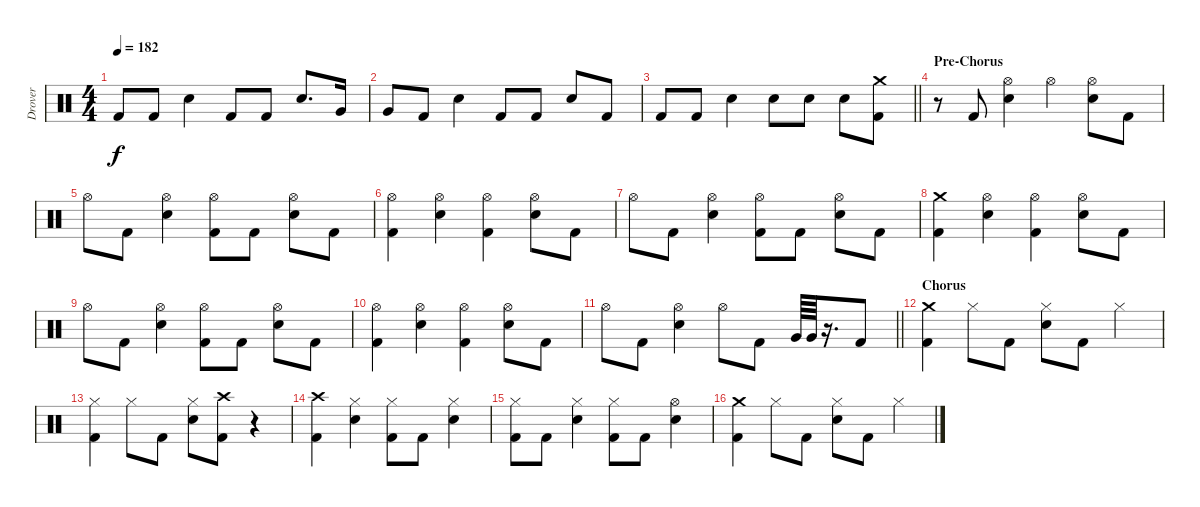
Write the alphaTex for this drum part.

\track ("Drover" "Drover") {instrument percussion}
\staff {score}
\articulation defaults
\ts (4 4)
\tempo 182
\clef neutral
\ks c "Kick (hit) 2".8{dy f} "Kick (hit) 2".8 "Snare (hit) 2".4 "Kick (hit) 2".8 "Kick (hit) 2".8 "Snare (hit) 2".8{d} "Very Low Tom (hit)".16
|
"Very Low Tom (hit)".8 "Kick (hit) 2".8 "Snare (hit) 2".4 "Kick (hit) 2".8 "Kick (hit) 2".8 "Snare (hit) 2".8 "Kick (hit) 2".8 |
\barLineRight lightlight "Kick (hit) 2".8 "Kick (hit) 2".8 "Snare (hit) 2".4 "Snare (hit) 2".8 "Snare (hit) 2".8 "Snare (hit) 2".8
("Crash medium (hit)" "Kick (hit) 2").8 |
\section ("" "Pre-Chorus")
r.8 "Kick (hit) 2".8 ("Hi-Hat (open)" "Snare (hit) 2").4 "Hi-Hat (open)".4 ("Hi-Hat (open)" "Snare (hit) 2").8 "Kick (hit) 2".8 |
"Hi-Hat (open)".8 "Kick (hit) 2".8 ("Hi-Hat (open)" "Snare (hit) 2").4 ("Hi-Hat (open)" "Kick (hit) 2").8 "Kick (hit) 2".8 ("Hi-Hat (open)" "Snare (hit) 2").8 "Kick (hit) 2".8 |
("Hi-Hat (open)" "Kick (hit) 2").4 ("Hi-Hat (open)" "Snare (hit) 2").4 ("Hi-Hat (open)" "Kick (hit) 2").4 ("Hi-Hat (open)" "Snare (hit) 2").8 "Kick (hit) 2".8 |
"Hi-Hat (open)".8 "Kick (hit) 2".8 ("Hi-Hat (open)" "Snare (hit) 2").4 ("Hi-Hat (open)" "Kick (hit) 2").8 "Kick (hit) 2".8 ("Hi-Hat (open)" "Snare (hit) 2").8 "Kick (hit) 2".8 |
("Crash medium (hit)" "Kick (hit) 2").4 ("Hi-Hat (open)" "Snare (hit) 2").4 ("Hi-Hat (open)" "Kick (hit) 2").4 ("Hi-Hat (open)" "Snare (hit) 2").8 "Kick (hit) 2".8 |
"Hi-Hat (open)".8 "Kick (hit) 2".8 ("Hi-Hat (open)" "Snare (hit) 2").4 ("Hi-Hat (open)" "Kick (hit) 2").8 "Kick (hit) 2".8 ("Hi-Hat (open)" "Snare (hit) 2").8 "Kick (hit) 2".8 |
("Hi-Hat (open)" "Kick (hit) 2").4 ("Hi-Hat (open)" "Snare (hit) 2").4 ("Hi-Hat (open)" "Kick (hit) 2").4 ("Hi-Hat (open)" "Snare (hit) 2").8 "Kick (hit) 2".8 |
\barLineRight lightlight "Hi-Hat (open)".8 "Kick (hit) 2".8
("Hi-Hat (open)" "Snare (hit) 2").4 "Hi-Hat (open)".8 "Kick (hit) 2".8 "Very Low Tom (hit)".64 "Very Low Tom (hit)".64 r.16{d} "Kick (hit) 2".8 |
\section ("" "Chorus")
("Crash medium (hit)" "Kick (hit) 2").4 "Hi-Hat (closed)".8 "Kick (hit) 2".8 ("Hi-Hat (closed)" "Snare (hit) 2").8 "Kick (hit) 2".8 "Hi-Hat (closed)".4 |
("Hi-Hat (closed)" "Kick (hit) 2").4 "Hi-Hat (closed)".8 "Kick (hit) 2".8 ("Hi-Hat (closed)" "Snare (hit) 2").8 ("Crash high (hit)" "Kick (hit) 2").8 r.4 |
("Crash high (hit)" "Kick (hit) 2").4 ("Hi-Hat (closed)" "Snare (hit) 2").4 ("Hi-Hat (closed)" "Kick (hit) 2").8 "Kick (hit) 2".8 ("Hi-Hat (closed)" "Snare (hit) 2").4 |
("Hi-Hat (closed)" "Kick (hit) 2").8 "Kick (hit) 2".8 ("Hi-Hat (closed)" "Snare (hit) 2").4 ("Hi-Hat (closed)" "Kick (hit) 2").8 "Kick (hit) 2".8 ("Hi-Hat (open)" "Snare (hit) 2").4 |
("Crash medium (hit)" "Kick (hit) 2").4 "Hi-Hat (closed)".8 "Kick (hit) 2".8 ("Hi-Hat (closed)" "Snare (hit) 2").8 "Kick (hit) 2".8 "Hi-Hat (closed)".4
